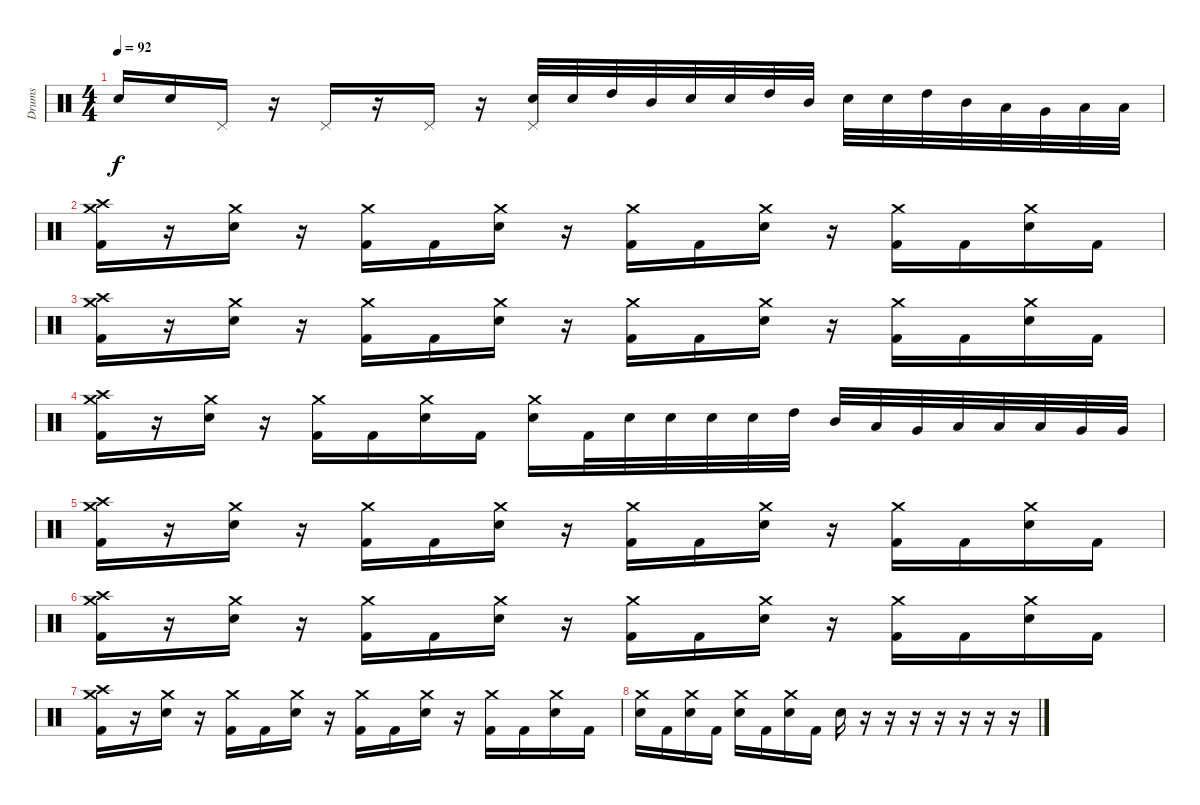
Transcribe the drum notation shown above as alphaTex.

\track ("Drums" "Drums") {instrument percussion}
\staff {score}
\articulation defaults
\ts (4 4)
\tempo 92
\clef neutral
\ks c "Electric Snare (hit)".16{dy f} "Electric Snare (hit)".16 "Pedal Hi-Hat (hit)".16
r.16 "Pedal Hi-Hat (hit)".16 r.16 "Pedal Hi-Hat (hit)".16 r.16 ("Pedal Hi-Hat (hit)" "Electric Snare (hit)").32 "Electric Snare (hit)".32 "High Tom (hit)".32 "Mid Tom (hit)".32 "Electric Snare (hit)".32 "Electric Snare (hit)".32 "High Tom (hit)".32 "Mid Tom (hit)".32 "Electric Snare (hit)".32 "Electric Snare (hit)".32 "High Tom (hit)".32 "Mid Tom (hit)".32 "Low Tom (hit)".32 "Very Low Tom (hit)".32 "Low Floor Tom (hit)".32 "Low Floor Tom (hit)".32 |
("Crash high (hit)" "Crash medium (hit)" "Kick (hit) 2").16 r.16 ("Crash medium (hit)" "Electric Snare (hit)").16 r.16 ("Crash medium (hit)" "Kick (hit) 2").16 "Kick (hit) 2".16 ("Crash medium (hit)" "Electric Snare (hit)").16 r.16 ("Crash medium (hit)" "Kick (hit) 2").16 "Kick (hit) 2".16 ("Crash medium (hit)" "Electric Snare (hit)").16 r.16 ("Crash medium (hit)" "Kick (hit) 2").16 "Kick (hit) 2".16 ("Crash medium (hit)" "Electric Snare (hit)").16 "Kick (hit) 2".16 |
("Crash high (hit)" "Crash medium (hit)" "Kick (hit) 2").16 r.16 ("Crash medium (hit)" "Electric Snare (hit)").16 r.16 ("Crash medium (hit)" "Kick (hit) 2").16 "Kick (hit) 2".16 ("Crash medium (hit)" "Electric Snare (hit)").16 r.16 ("Crash medium (hit)" "Kick (hit) 2").16 "Kick (hit) 2".16 ("Crash medium (hit)" "Electric Snare (hit)").16 r.16 ("Crash medium (hit)" "Kick (hit) 2").16 "Kick (hit) 2".16 ("Crash medium (hit)" "Electric Snare (hit)").16 "Kick (hit) 2".16 |
("Crash high (hit)" "Crash medium (hit)" "Kick (hit) 2").16 r.16 ("Crash medium (hit)" "Electric Snare (hit)").16 r.16 ("Crash medium (hit)" "Kick (hit) 2").16 "Kick (hit) 2".16 ("Crash medium (hit)" "Electric Snare (hit)").16 "Kick (hit) 2".16 ("Crash medium (hit)" "Electric Snare (hit)").16 "Kick (hit) 2".32 "Electric Snare (hit)".32 "Electric Snare (hit)".32 "Electric Snare (hit)".32 "Electric Snare (hit)".32 "High Tom (hit)".32 "Mid Tom (hit)".32 "Low Tom (hit)".32 "Very Low Tom (hit)".32 "Low Floor Tom (hit)".32 "Low Floor Tom (hit)".32 "Low Floor Tom (hit)".32 "Very Low Tom (hit)".32 "Very Low Tom (hit)".32 |
("Crash high (hit)" "Crash medium (hit)" "Kick (hit) 2").16 r.16 ("Crash medium (hit)" "Electric Snare (hit)").16 r.16 ("Crash medium (hit)" "Kick (hit) 2").16 "Kick (hit) 2".16 ("Crash medium (hit)" "Electric Snare (hit)").16 r.16 ("Crash medium (hit)" "Kick (hit) 2").16 "Kick (hit) 2".16 ("Crash medium (hit)" "Electric Snare (hit)").16 r.16 ("Crash medium (hit)" "Kick (hit) 2").16 "Kick (hit) 2".16 ("Crash medium (hit)" "Electric Snare (hit)").16 "Kick (hit) 2".16 |
("Crash high (hit)" "Crash medium (hit)" "Kick (hit) 2").16 r.16 ("Crash medium (hit)" "Electric Snare (hit)").16 r.16 ("Crash medium (hit)" "Kick (hit) 2").16 "Kick (hit) 2".16 ("Crash medium (hit)" "Electric Snare (hit)").16 r.16 ("Crash medium (hit)" "Kick (hit) 2").16 "Kick (hit) 2".16 ("Crash medium (hit)" "Electric Snare (hit)").16 r.16 ("Crash medium (hit)" "Kick (hit) 2").16 "Kick (hit) 2".16 ("Crash medium (hit)" "Electric Snare (hit)").16 "Kick (hit) 2".16 |
("Crash high (hit)" "Crash medium (hit)" "Kick (hit) 2").16 r.16 ("Crash medium (hit)" "Electric Snare (hit)").16 r.16 ("Crash medium (hit)" "Kick (hit) 2").16 "Kick (hit) 2".16 ("Crash medium (hit)" "Electric Snare (hit)").16 r.16 ("Crash medium (hit)" "Kick (hit) 2").16 "Kick (hit) 2".16 ("Crash medium (hit)" "Electric Snare (hit)").16 r.16 ("Crash medium (hit)" "Kick (hit) 2").16 "Kick (hit) 2".16 ("Crash medium (hit)" "Electric Snare (hit)").16 "Kick (hit) 2".16 |
("Crash medium (hit)" "Electric Snare (hit)").16 "Kick (hit) 2".16 ("Crash medium (hit)" "Electric Snare (hit)").16 "Kick (hit) 2".16 ("Crash medium (hit)" "Electric Snare (hit)").16 "Kick (hit) 2".16 ("Crash medium (hit)" "Electric Snare (hit)").16 "Kick (hit) 2".16 "Electric Snare (hit)".16 r.16 r.16 r.16 r.16 r.16 r.16 r.16
